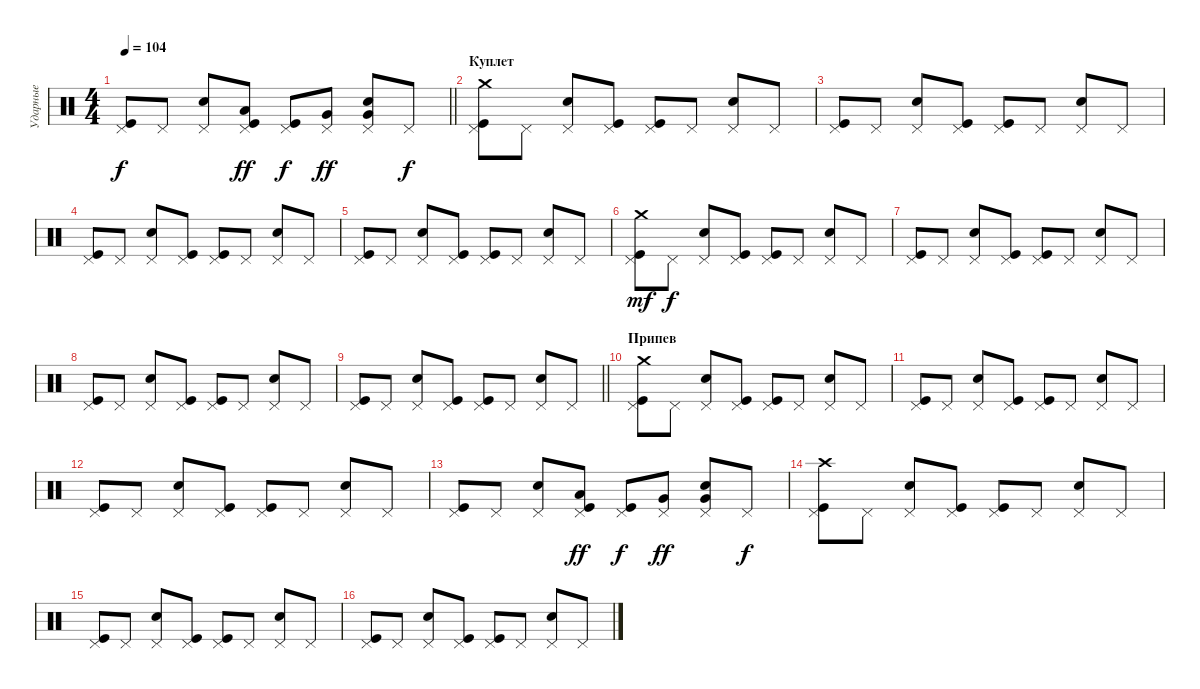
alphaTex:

\track ("Ударные" "Ударные") {instrument percussion}
\staff {score}
\articulation defaults
\ts (4 4)
\tempo 104
\clef neutral
\barLineRight lightlight
\ks c
("Pedal Hi-Hat (hit)" "Kick (hit)").8{dy f} "Pedal Hi-Hat (hit)".8 ("Pedal Hi-Hat (hit)" "Snare (hit) 2").8 ("Pedal Hi-Hat (hit)" "Kick (hit)" "Low Floor Tom (hit)").8{dy ff} ("Pedal Hi-Hat (hit)" "Kick (hit)").8{dy f} ("Pedal Hi-Hat (hit)" "Very Low Tom (hit)").8{dy ff} ("Pedal Hi-Hat (hit)" "Snare (hit) 2" "Very Low Tom (hit)").8 "Pedal Hi-Hat (hit)".8{dy f} |
\section ("" "Куплет")
("Pedal Hi-Hat (hit)" "Kick (hit)" "Crash medium (hit)").8 "Pedal Hi-Hat (hit)".8 ("Pedal Hi-Hat (hit)" "Snare (hit) 2").8 ("Pedal Hi-Hat (hit)" "Kick (hit)").8 ("Pedal Hi-Hat (hit)" "Kick (hit)").8 "Pedal Hi-Hat (hit)".8 ("Pedal Hi-Hat (hit)" "Snare (hit) 2").8 "Pedal Hi-Hat (hit)".8 |
("Pedal Hi-Hat (hit)" "Kick (hit)").8 "Pedal Hi-Hat (hit)".8 ("Pedal Hi-Hat (hit)" "Snare (hit) 2").8 ("Pedal Hi-Hat (hit)" "Kick (hit)").8 ("Pedal Hi-Hat (hit)" "Kick (hit)").8 "Pedal Hi-Hat (hit)".8 ("Pedal Hi-Hat (hit)" "Snare (hit) 2").8 "Pedal Hi-Hat (hit)".8 |
("Pedal Hi-Hat (hit)" "Kick (hit)").8 "Pedal Hi-Hat (hit)".8 ("Pedal Hi-Hat (hit)" "Snare (hit) 2").8 ("Pedal Hi-Hat (hit)" "Kick (hit)").8 ("Pedal Hi-Hat (hit)" "Kick (hit)").8 "Pedal Hi-Hat (hit)".8 ("Pedal Hi-Hat (hit)" "Snare (hit) 2").8 "Pedal Hi-Hat (hit)".8 |
("Pedal Hi-Hat (hit)" "Kick (hit)").8 "Pedal Hi-Hat (hit)".8 ("Pedal Hi-Hat (hit)" "Snare (hit) 2").8 ("Pedal Hi-Hat (hit)" "Kick (hit)").8 ("Pedal Hi-Hat (hit)" "Kick (hit)").8 "Pedal Hi-Hat (hit)".8 ("Pedal Hi-Hat (hit)" "Snare (hit) 2").8 "Pedal Hi-Hat (hit)".8 |
("Pedal Hi-Hat (hit)" "Kick (hit)" "Crash medium (hit)").8{dy mf} "Pedal Hi-Hat (hit)".8{dy f} ("Pedal Hi-Hat (hit)" "Snare (hit) 2").8 ("Pedal Hi-Hat (hit)" "Kick (hit)").8 ("Pedal Hi-Hat (hit)" "Kick (hit)").8 "Pedal Hi-Hat (hit)".8 ("Pedal Hi-Hat (hit)" "Snare (hit) 2").8 "Pedal Hi-Hat (hit)".8 |
("Pedal Hi-Hat (hit)" "Kick (hit)").8 "Pedal Hi-Hat (hit)".8 ("Pedal Hi-Hat (hit)" "Snare (hit) 2").8 ("Pedal Hi-Hat (hit)" "Kick (hit)").8 ("Pedal Hi-Hat (hit)" "Kick (hit)").8 "Pedal Hi-Hat (hit)".8 ("Pedal Hi-Hat (hit)" "Snare (hit) 2").8 "Pedal Hi-Hat (hit)".8 |
("Pedal Hi-Hat (hit)" "Kick (hit)").8 "Pedal Hi-Hat (hit)".8 ("Pedal Hi-Hat (hit)" "Snare (hit) 2").8 ("Pedal Hi-Hat (hit)" "Kick (hit)").8 ("Pedal Hi-Hat (hit)" "Kick (hit)").8 "Pedal Hi-Hat (hit)".8 ("Pedal Hi-Hat (hit)" "Snare (hit) 2").8 "Pedal Hi-Hat (hit)".8 |
\barLineRight lightlight
("Pedal Hi-Hat (hit)" "Kick (hit)").8 "Pedal Hi-Hat (hit)".8 ("Pedal Hi-Hat (hit)" "Snare (hit) 2").8 ("Pedal Hi-Hat (hit)" "Kick (hit)").8 ("Pedal Hi-Hat (hit)" "Kick (hit)").8 "Pedal Hi-Hat (hit)".8 ("Pedal Hi-Hat (hit)" "Snare (hit) 2").8 "Pedal Hi-Hat (hit)".8 |
\section ("" "Припев")
("Pedal Hi-Hat (hit)" "Kick (hit)" "Crash medium (hit)").8 "Pedal Hi-Hat (hit)".8 ("Pedal Hi-Hat (hit)" "Snare (hit) 2").8 ("Pedal Hi-Hat (hit)" "Kick (hit)").8 ("Pedal Hi-Hat (hit)" "Kick (hit)").8 "Pedal Hi-Hat (hit)".8 ("Pedal Hi-Hat (hit)" "Snare (hit) 2").8 "Pedal Hi-Hat (hit)".8 |
("Pedal Hi-Hat (hit)" "Kick (hit)").8 "Pedal Hi-Hat (hit)".8 ("Pedal Hi-Hat (hit)" "Snare (hit) 2").8 ("Pedal Hi-Hat (hit)" "Kick (hit)").8 ("Pedal Hi-Hat (hit)" "Kick (hit)").8 "Pedal Hi-Hat (hit)".8 ("Pedal Hi-Hat (hit)" "Snare (hit) 2").8 "Pedal Hi-Hat (hit)".8 |
("Pedal Hi-Hat (hit)" "Kick (hit)").8 "Pedal Hi-Hat (hit)".8 ("Pedal Hi-Hat (hit)" "Snare (hit) 2").8 ("Pedal Hi-Hat (hit)" "Kick (hit)").8 ("Pedal Hi-Hat (hit)" "Kick (hit)").8 "Pedal Hi-Hat (hit)".8 ("Pedal Hi-Hat (hit)" "Snare (hit) 2").8 "Pedal Hi-Hat (hit)".8 |
("Pedal Hi-Hat (hit)" "Kick (hit)").8 "Pedal Hi-Hat (hit)".8 ("Pedal Hi-Hat (hit)" "Snare (hit) 2").8 ("Pedal Hi-Hat (hit)" "Kick (hit)" "Low Floor Tom (hit)").8{dy ff} ("Pedal Hi-Hat (hit)" "Kick (hit)").8{dy f} ("Pedal Hi-Hat (hit)" "Very Low Tom (hit)").8{dy ff} ("Pedal Hi-Hat (hit)" "Snare (hit) 2" "Very Low Tom (hit)").8 "Pedal Hi-Hat (hit)".8{dy f} |
("Pedal Hi-Hat (hit)" "Kick (hit)" "Crash high (hit)").8 "Pedal Hi-Hat (hit)".8 ("Pedal Hi-Hat (hit)" "Snare (hit) 2").8 ("Pedal Hi-Hat (hit)" "Kick (hit)").8 ("Pedal Hi-Hat (hit)" "Kick (hit)").8 "Pedal Hi-Hat (hit)".8 ("Pedal Hi-Hat (hit)" "Snare (hit) 2").8 "Pedal Hi-Hat (hit)".8 |
("Pedal Hi-Hat (hit)" "Kick (hit)").8 "Pedal Hi-Hat (hit)".8 ("Pedal Hi-Hat (hit)" "Snare (hit) 2").8 ("Pedal Hi-Hat (hit)" "Kick (hit)").8 ("Pedal Hi-Hat (hit)" "Kick (hit)").8 "Pedal Hi-Hat (hit)".8 ("Pedal Hi-Hat (hit)" "Snare (hit) 2").8 "Pedal Hi-Hat (hit)".8 |
("Pedal Hi-Hat (hit)" "Kick (hit)").8 "Pedal Hi-Hat (hit)".8 ("Pedal Hi-Hat (hit)" "Snare (hit) 2").8 ("Pedal Hi-Hat (hit)" "Kick (hit)").8 ("Pedal Hi-Hat (hit)" "Kick (hit)").8 "Pedal Hi-Hat (hit)".8 ("Pedal Hi-Hat (hit)" "Snare (hit) 2").8 "Pedal Hi-Hat (hit)".8
